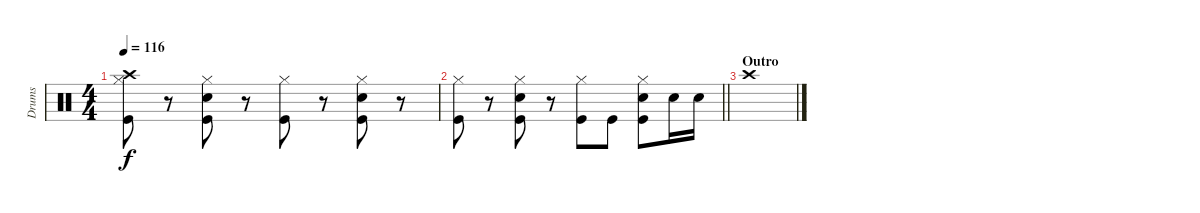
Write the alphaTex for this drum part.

\track ("Drums" "Drums") {instrument percussion}
\staff {score}
\articulation defaults
\ts (4 4)
\tempo 116
\clef neutral
\ks c
("Crash high (hit)" "Hi-Hat (closed)" "Kick (hit)").8{dy f} r.8 ("Hi-Hat (closed)" "Snare (hit) 2" "Kick (hit)").8 r.8 ("Hi-Hat (closed)" "Kick (hit)").8 r.8 ("Hi-Hat (closed)" "Snare (hit) 2" "Kick (hit)").8 r.8 |
\barLineRight lightlight
("Hi-Hat (closed)" "Kick (hit)").8 r.8 ("Hi-Hat (closed)" "Snare (hit) 2" "Kick (hit)").8 r.8 ("Hi-Hat (closed)" "Kick (hit)").8 "Kick (hit)".8 ("Hi-Hat (closed)" "Snare (hit) 2" "Kick (hit)").8 "Snare (hit) 2".16 "Snare (hit) 2".16 |
\section ("" "Outro")
"Crash high (hit)".1
